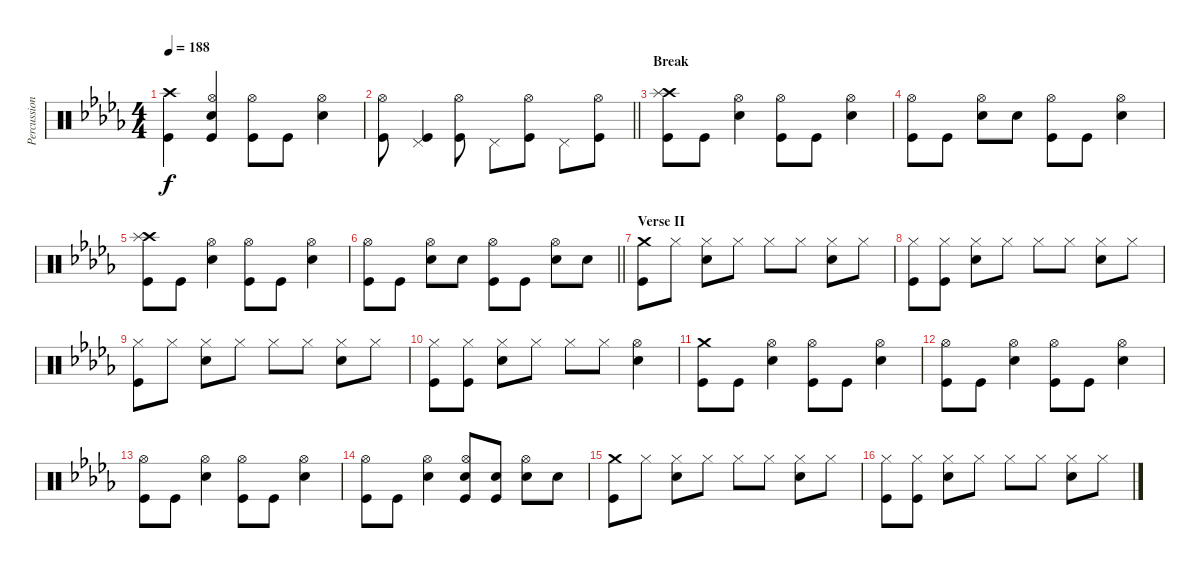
\track ("Percussion" "Percussion") {instrument percussion}
\staff {score}
\articulation defaults
\ts (4 4)
\tempo 188
\clef neutral
\ks db
("Crash high (hit)" "Kick (hit)").4{dy f} ("Hi-Hat (open)" "Electric Snare (hit)" "Kick (hit)").4 ("Hi-Hat (open)" "Kick (hit)").8 "Kick (hit)".8 ("Hi-Hat (open)" "Electric Snare (hit)").4 |
\barLineRight lightlight
("Hi-Hat (open)" "Kick (hit)").8 ("Pedal Hi-Hat (hit)" "Kick (hit)").4 ("Hi-Hat (open)" "Kick (hit)").8 "Pedal Hi-Hat (hit)".8 ("Hi-Hat (open)" "Kick (hit)").8 "Pedal Hi-Hat (hit)".8 ("Hi-Hat (open)" "Kick (hit)").8 |
\section ("" "Break")
("Crash high (hit)" "Splash (hit)" "Kick (hit)").8 "Kick (hit)".8 ("Hi-Hat (open)" "Electric Snare (hit)").4 ("Hi-Hat (open)" "Kick (hit)").8 "Kick (hit)".8 ("Hi-Hat (open)" "Electric Snare (hit)").4 |
("Hi-Hat (open)" "Kick (hit)").8 "Kick (hit)".8 ("Hi-Hat (open)" "Electric Snare (hit)").8 "Electric Snare (hit)".8 ("Hi-Hat (open)" "Kick (hit)").8 "Kick (hit)".8 ("Hi-Hat (open)" "Electric Snare (hit)").4 |
("Crash high (hit)" "Splash (hit)" "Kick (hit)").8 "Kick (hit)".8 ("Hi-Hat (open)" "Electric Snare (hit)").4 ("Hi-Hat (open)" "Kick (hit)").8 "Kick (hit)".8 ("Hi-Hat (open)" "Electric Snare (hit)").4 |
\barLineRight lightlight
("Hi-Hat (open)" "Kick (hit)").8 "Kick (hit)".8 ("Hi-Hat (open)" "Electric Snare (hit)").8 "Electric Snare (hit)".8 ("Hi-Hat (open)" "Kick (hit)").8 "Kick (hit)".8 ("Hi-Hat (open)" "Electric Snare (hit)").8 "Electric Snare (hit)".8 |
\section ("" "Verse II")
("Crash medium (hit)" "Kick (hit)").8 "Hi-Hat (closed)".8 ("Hi-Hat (closed)" "Electric Snare (hit)").8 "Hi-Hat (closed)".8 "Hi-Hat (closed)".8 "Hi-Hat (closed)".8 ("Hi-Hat (closed)" "Electric Snare (hit)").8 "Hi-Hat (closed)".8 |
("Hi-Hat (closed)" "Kick (hit)").8 ("Hi-Hat (closed)" "Kick (hit)").8 ("Hi-Hat (closed)" "Electric Snare (hit)").8 "Hi-Hat (closed)".8 "Hi-Hat (closed)".8 "Hi-Hat (closed)".8 ("Hi-Hat (closed)" "Electric Snare (hit)").8 "Hi-Hat (closed)".8 |
("Hi-Hat (closed)" "Kick (hit)").8 "Hi-Hat (closed)".8 ("Hi-Hat (closed)" "Electric Snare (hit)").8 "Hi-Hat (closed)".8 "Hi-Hat (closed)".8 "Hi-Hat (closed)".8 ("Hi-Hat (closed)" "Electric Snare (hit)").8 "Hi-Hat (closed)".8 |
("Hi-Hat (closed)" "Kick (hit)").8 ("Hi-Hat (closed)" "Kick (hit)").8 ("Hi-Hat (closed)" "Electric Snare (hit)").8 "Hi-Hat (closed)".8 "Hi-Hat (closed)".8 "Hi-Hat (closed)".8 ("Hi-Hat (open)" "Electric Snare (hit)").4 |
("Crash medium (hit)" "Kick (hit)").8 "Kick (hit)".8 ("Hi-Hat (open)" "Electric Snare (hit)").4 ("Hi-Hat (open)" "Kick (hit)").8 "Kick (hit)".8 ("Hi-Hat (open)" "Electric Snare (hit)").4 |
("Hi-Hat (open)" "Kick (hit)").8 "Kick (hit)".8 ("Hi-Hat (open)" "Electric Snare (hit)").4 ("Hi-Hat (open)" "Kick (hit)").8 "Kick (hit)".8 ("Hi-Hat (open)" "Electric Snare (hit)").4 |
("Hi-Hat (open)" "Kick (hit)").8 "Kick (hit)".8 ("Hi-Hat (open)" "Electric Snare (hit)").4 ("Hi-Hat (open)" "Kick (hit)").8 "Kick (hit)".8 ("Hi-Hat (open)" "Electric Snare (hit)").4 |
("Hi-Hat (open)" "Kick (hit)").8 "Kick (hit)".8 ("Hi-Hat (open)" "Electric Snare (hit)").4 ("Hi-Hat (open)" "Electric Snare (hit)" "Kick (hit)").8 ("Electric Snare (hit)" "Kick (hit)").8 ("Hi-Hat (open)" "Electric Snare (hit)").8 "Electric Snare (hit)".8 |
("Crash medium (hit)" "Kick (hit)").8 "Hi-Hat (closed)".8 ("Hi-Hat (closed)" "Electric Snare (hit)").8 "Hi-Hat (closed)".8 "Hi-Hat (closed)".8 "Hi-Hat (closed)".8 ("Hi-Hat (closed)" "Electric Snare (hit)").8 "Hi-Hat (closed)".8 |
("Hi-Hat (closed)" "Kick (hit)").8 ("Hi-Hat (closed)" "Kick (hit)").8 ("Hi-Hat (closed)" "Electric Snare (hit)").8 "Hi-Hat (closed)".8 "Hi-Hat (closed)".8 "Hi-Hat (closed)".8 ("Hi-Hat (closed)" "Electric Snare (hit)").8 "Hi-Hat (closed)".8
